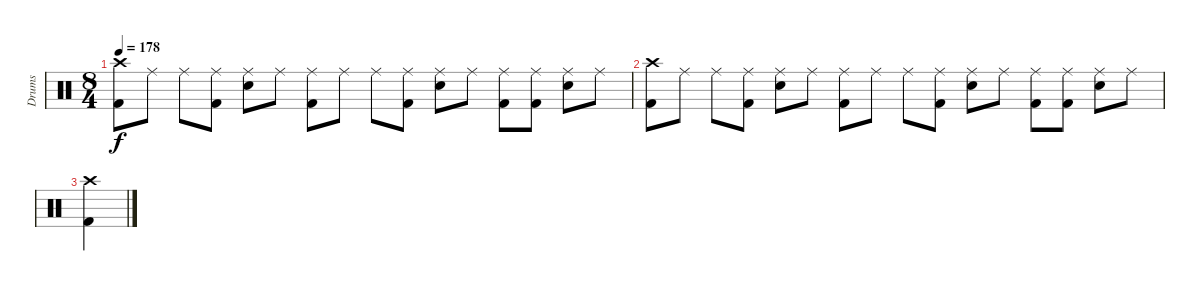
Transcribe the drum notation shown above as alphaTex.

\track ("Drums" "Drums") {instrument percussion}
\staff {score}
\articulation defaults
\ts (8 4)
\tempo 178
\clef neutral
\ks c
("Crash high (hit)" "Kick (hit) 2").8{dy f} "Ride (middle)".8 "Ride (middle)".8 ("Ride (middle)" "Kick (hit) 2").8 ("Ride (middle)" "Snare (hit) 2").8 "Ride (middle)".8 ("Ride (middle)" "Kick (hit) 2").8 "Ride (middle)".8 "Ride (middle)".8 ("Ride (middle)" "Kick (hit) 2").8 ("Ride (middle)" "Snare (hit) 2").8 "Ride (middle)".8 ("Ride (middle)" "Kick (hit) 2").8 ("Ride (middle)" "Kick (hit) 2").8 ("Ride (middle)" "Snare (hit) 2").8 "Ride (middle)".8 |
("Crash high (hit)" "Kick (hit) 2").8 "Ride (middle)".8 "Ride (middle)".8 ("Ride (middle)" "Kick (hit) 2").8 ("Ride (middle)" "Snare (hit) 2").8 "Ride (middle)".8 ("Ride (middle)" "Kick (hit) 2").8 "Ride (middle)".8 "Ride (middle)".8 ("Ride (middle)" "Kick (hit) 2").8 ("Ride (middle)" "Snare (hit) 2").8 "Ride (middle)".8 ("Ride (middle)" "Kick (hit) 2").8 ("Ride (middle)" "Kick (hit) 2").8 ("Ride (middle)" "Snare (hit) 2").8 "Ride (middle)".8 |
("Crash high (hit)" "Kick (hit) 2").4
